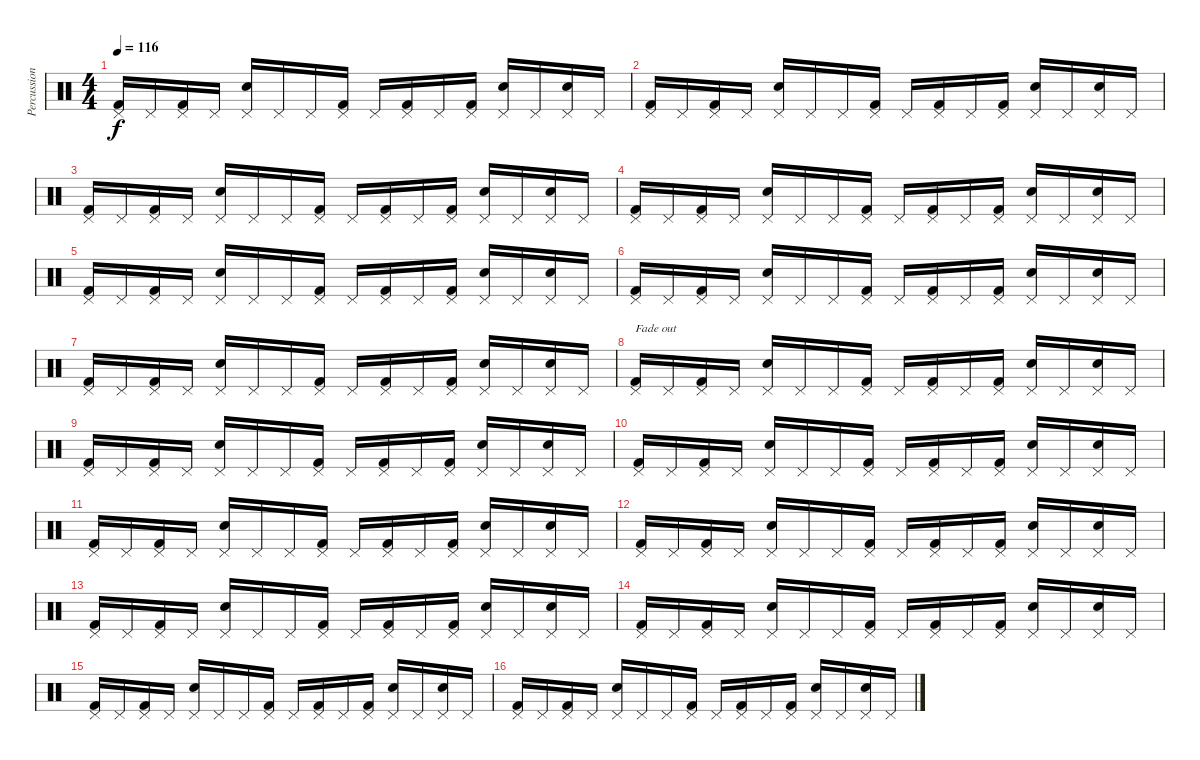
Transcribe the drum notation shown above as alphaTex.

\track ("Percussions" "Percussion") {instrument percussion}
\staff {score}
\articulation defaults
\ts (4 4)
\tempo 116
\clef neutral
\ks c
("Pedal Hi-Hat (hit)" "Kick (hit) 2").16{dy f} "Pedal Hi-Hat (hit)".16 ("Pedal Hi-Hat (hit)" "Kick (hit) 2").16 "Pedal Hi-Hat (hit)".16 ("Pedal Hi-Hat (hit)" "Snare (hit) 2").16 "Pedal Hi-Hat (hit)".16 "Pedal Hi-Hat (hit)".16 ("Pedal Hi-Hat (hit)" "Kick (hit) 2").16 "Pedal Hi-Hat (hit)".16 ("Pedal Hi-Hat (hit)" "Kick (hit) 2").16 "Pedal Hi-Hat (hit)".16 ("Pedal Hi-Hat (hit)" "Kick (hit) 2").16 ("Pedal Hi-Hat (hit)" "Snare (hit) 2").16 "Pedal Hi-Hat (hit)".16 ("Pedal Hi-Hat (hit)" "Snare (hit) 2").16 "Pedal Hi-Hat (hit)".16 |
("Pedal Hi-Hat (hit)" "Kick (hit) 2").16 "Pedal Hi-Hat (hit)".16 ("Pedal Hi-Hat (hit)" "Kick (hit) 2").16 "Pedal Hi-Hat (hit)".16 ("Pedal Hi-Hat (hit)" "Snare (hit) 2").16 "Pedal Hi-Hat (hit)".16 "Pedal Hi-Hat (hit)".16 ("Pedal Hi-Hat (hit)" "Kick (hit) 2").16 "Pedal Hi-Hat (hit)".16 ("Pedal Hi-Hat (hit)" "Kick (hit) 2").16 "Pedal Hi-Hat (hit)".16 ("Pedal Hi-Hat (hit)" "Kick (hit) 2").16 ("Pedal Hi-Hat (hit)" "Snare (hit) 2").16 "Pedal Hi-Hat (hit)".16 ("Pedal Hi-Hat (hit)" "Snare (hit) 2").16 "Pedal Hi-Hat (hit)".16 |
("Pedal Hi-Hat (hit)" "Kick (hit) 2").16 "Pedal Hi-Hat (hit)".16 ("Pedal Hi-Hat (hit)" "Kick (hit) 2").16 "Pedal Hi-Hat (hit)".16 ("Pedal Hi-Hat (hit)" "Snare (hit) 2").16 "Pedal Hi-Hat (hit)".16 "Pedal Hi-Hat (hit)".16 ("Pedal Hi-Hat (hit)" "Kick (hit) 2").16 "Pedal Hi-Hat (hit)".16 ("Pedal Hi-Hat (hit)" "Kick (hit) 2").16 "Pedal Hi-Hat (hit)".16 ("Pedal Hi-Hat (hit)" "Kick (hit) 2").16 ("Pedal Hi-Hat (hit)" "Snare (hit) 2").16 "Pedal Hi-Hat (hit)".16 ("Pedal Hi-Hat (hit)" "Snare (hit) 2").16 "Pedal Hi-Hat (hit)".16 |
("Pedal Hi-Hat (hit)" "Kick (hit) 2").16 "Pedal Hi-Hat (hit)".16 ("Pedal Hi-Hat (hit)" "Kick (hit) 2").16 "Pedal Hi-Hat (hit)".16 ("Pedal Hi-Hat (hit)" "Snare (hit) 2").16 "Pedal Hi-Hat (hit)".16 "Pedal Hi-Hat (hit)".16 ("Pedal Hi-Hat (hit)" "Kick (hit) 2").16 "Pedal Hi-Hat (hit)".16 ("Pedal Hi-Hat (hit)" "Kick (hit) 2").16 "Pedal Hi-Hat (hit)".16 ("Pedal Hi-Hat (hit)" "Kick (hit) 2").16 ("Pedal Hi-Hat (hit)" "Snare (hit) 2").16 "Pedal Hi-Hat (hit)".16 ("Pedal Hi-Hat (hit)" "Snare (hit) 2").16 "Pedal Hi-Hat (hit)".16 |
("Pedal Hi-Hat (hit)" "Kick (hit) 2").16 "Pedal Hi-Hat (hit)".16 ("Pedal Hi-Hat (hit)" "Kick (hit) 2").16 "Pedal Hi-Hat (hit)".16 ("Pedal Hi-Hat (hit)" "Snare (hit) 2").16 "Pedal Hi-Hat (hit)".16 "Pedal Hi-Hat (hit)".16 ("Pedal Hi-Hat (hit)" "Kick (hit) 2").16 "Pedal Hi-Hat (hit)".16 ("Pedal Hi-Hat (hit)" "Kick (hit) 2").16 "Pedal Hi-Hat (hit)".16 ("Pedal Hi-Hat (hit)" "Kick (hit) 2").16 ("Pedal Hi-Hat (hit)" "Snare (hit) 2").16 "Pedal Hi-Hat (hit)".16 ("Pedal Hi-Hat (hit)" "Snare (hit) 2").16 "Pedal Hi-Hat (hit)".16 |
("Pedal Hi-Hat (hit)" "Kick (hit) 2").16 "Pedal Hi-Hat (hit)".16 ("Pedal Hi-Hat (hit)" "Kick (hit) 2").16 "Pedal Hi-Hat (hit)".16 ("Pedal Hi-Hat (hit)" "Snare (hit) 2").16 "Pedal Hi-Hat (hit)".16 "Pedal Hi-Hat (hit)".16 ("Pedal Hi-Hat (hit)" "Kick (hit) 2").16 "Pedal Hi-Hat (hit)".16 ("Pedal Hi-Hat (hit)" "Kick (hit) 2").16 "Pedal Hi-Hat (hit)".16 ("Pedal Hi-Hat (hit)" "Kick (hit) 2").16 ("Pedal Hi-Hat (hit)" "Snare (hit) 2").16 "Pedal Hi-Hat (hit)".16 ("Pedal Hi-Hat (hit)" "Snare (hit) 2").16 "Pedal Hi-Hat (hit)".16 |
("Pedal Hi-Hat (hit)" "Kick (hit) 2").16 "Pedal Hi-Hat (hit)".16 ("Pedal Hi-Hat (hit)" "Kick (hit) 2").16 "Pedal Hi-Hat (hit)".16 ("Pedal Hi-Hat (hit)" "Snare (hit) 2").16 "Pedal Hi-Hat (hit)".16 "Pedal Hi-Hat (hit)".16 ("Pedal Hi-Hat (hit)" "Kick (hit) 2").16 "Pedal Hi-Hat (hit)".16 ("Pedal Hi-Hat (hit)" "Kick (hit) 2").16 "Pedal Hi-Hat (hit)".16 ("Pedal Hi-Hat (hit)" "Kick (hit) 2").16 ("Pedal Hi-Hat (hit)" "Snare (hit) 2").16 "Pedal Hi-Hat (hit)".16 ("Pedal Hi-Hat (hit)" "Snare (hit) 2").16 "Pedal Hi-Hat (hit)".16 |
("Pedal Hi-Hat (hit)" "Kick (hit) 2").16{txt "Fade out"} "Pedal Hi-Hat (hit)".16 ("Pedal Hi-Hat (hit)" "Kick (hit) 2").16 "Pedal Hi-Hat (hit)".16 ("Pedal Hi-Hat (hit)" "Snare (hit) 2").16 "Pedal Hi-Hat (hit)".16 "Pedal Hi-Hat (hit)".16 ("Pedal Hi-Hat (hit)" "Kick (hit) 2").16 "Pedal Hi-Hat (hit)".16 ("Pedal Hi-Hat (hit)" "Kick (hit) 2").16 "Pedal Hi-Hat (hit)".16 ("Pedal Hi-Hat (hit)" "Kick (hit) 2").16 ("Pedal Hi-Hat (hit)" "Snare (hit) 2").16 "Pedal Hi-Hat (hit)".16 ("Pedal Hi-Hat (hit)" "Snare (hit) 2").16 "Pedal Hi-Hat (hit)".16 |
("Pedal Hi-Hat (hit)" "Kick (hit) 2").16 "Pedal Hi-Hat (hit)".16 ("Pedal Hi-Hat (hit)" "Kick (hit) 2").16 "Pedal Hi-Hat (hit)".16 ("Pedal Hi-Hat (hit)" "Snare (hit) 2").16 "Pedal Hi-Hat (hit)".16 "Pedal Hi-Hat (hit)".16 ("Pedal Hi-Hat (hit)" "Kick (hit) 2").16 "Pedal Hi-Hat (hit)".16 ("Pedal Hi-Hat (hit)" "Kick (hit) 2").16 "Pedal Hi-Hat (hit)".16 ("Pedal Hi-Hat (hit)" "Kick (hit) 2").16 ("Pedal Hi-Hat (hit)" "Snare (hit) 2").16 "Pedal Hi-Hat (hit)".16 ("Pedal Hi-Hat (hit)" "Snare (hit) 2").16 "Pedal Hi-Hat (hit)".16 |
("Pedal Hi-Hat (hit)" "Kick (hit) 2").16 "Pedal Hi-Hat (hit)".16 ("Pedal Hi-Hat (hit)" "Kick (hit) 2").16 "Pedal Hi-Hat (hit)".16 ("Pedal Hi-Hat (hit)" "Snare (hit) 2").16 "Pedal Hi-Hat (hit)".16 "Pedal Hi-Hat (hit)".16 ("Pedal Hi-Hat (hit)" "Kick (hit) 2").16 "Pedal Hi-Hat (hit)".16 ("Pedal Hi-Hat (hit)" "Kick (hit) 2").16 "Pedal Hi-Hat (hit)".16 ("Pedal Hi-Hat (hit)" "Kick (hit) 2").16 ("Pedal Hi-Hat (hit)" "Snare (hit) 2").16 "Pedal Hi-Hat (hit)".16 ("Pedal Hi-Hat (hit)" "Snare (hit) 2").16 "Pedal Hi-Hat (hit)".16 |
("Pedal Hi-Hat (hit)" "Kick (hit) 2").16 "Pedal Hi-Hat (hit)".16 ("Pedal Hi-Hat (hit)" "Kick (hit) 2").16 "Pedal Hi-Hat (hit)".16 ("Pedal Hi-Hat (hit)" "Snare (hit) 2").16 "Pedal Hi-Hat (hit)".16 "Pedal Hi-Hat (hit)".16 ("Pedal Hi-Hat (hit)" "Kick (hit) 2").16 "Pedal Hi-Hat (hit)".16 ("Pedal Hi-Hat (hit)" "Kick (hit) 2").16 "Pedal Hi-Hat (hit)".16 ("Pedal Hi-Hat (hit)" "Kick (hit) 2").16 ("Pedal Hi-Hat (hit)" "Snare (hit) 2").16 "Pedal Hi-Hat (hit)".16 ("Pedal Hi-Hat (hit)" "Snare (hit) 2").16 "Pedal Hi-Hat (hit)".16 |
("Pedal Hi-Hat (hit)" "Kick (hit) 2").16 "Pedal Hi-Hat (hit)".16 ("Pedal Hi-Hat (hit)" "Kick (hit) 2").16 "Pedal Hi-Hat (hit)".16 ("Pedal Hi-Hat (hit)" "Snare (hit) 2").16 "Pedal Hi-Hat (hit)".16 "Pedal Hi-Hat (hit)".16 ("Pedal Hi-Hat (hit)" "Kick (hit) 2").16 "Pedal Hi-Hat (hit)".16 ("Pedal Hi-Hat (hit)" "Kick (hit) 2").16 "Pedal Hi-Hat (hit)".16 ("Pedal Hi-Hat (hit)" "Kick (hit) 2").16 ("Pedal Hi-Hat (hit)" "Snare (hit) 2").16 "Pedal Hi-Hat (hit)".16 ("Pedal Hi-Hat (hit)" "Snare (hit) 2").16 "Pedal Hi-Hat (hit)".16 |
("Pedal Hi-Hat (hit)" "Kick (hit) 2").16 "Pedal Hi-Hat (hit)".16 ("Pedal Hi-Hat (hit)" "Kick (hit) 2").16 "Pedal Hi-Hat (hit)".16 ("Pedal Hi-Hat (hit)" "Snare (hit) 2").16 "Pedal Hi-Hat (hit)".16 "Pedal Hi-Hat (hit)".16 ("Pedal Hi-Hat (hit)" "Kick (hit) 2").16 "Pedal Hi-Hat (hit)".16 ("Pedal Hi-Hat (hit)" "Kick (hit) 2").16 "Pedal Hi-Hat (hit)".16 ("Pedal Hi-Hat (hit)" "Kick (hit) 2").16 ("Pedal Hi-Hat (hit)" "Snare (hit) 2").16 "Pedal Hi-Hat (hit)".16 ("Pedal Hi-Hat (hit)" "Snare (hit) 2").16 "Pedal Hi-Hat (hit)".16 |
("Pedal Hi-Hat (hit)" "Kick (hit) 2").16 "Pedal Hi-Hat (hit)".16 ("Pedal Hi-Hat (hit)" "Kick (hit) 2").16 "Pedal Hi-Hat (hit)".16 ("Pedal Hi-Hat (hit)" "Snare (hit) 2").16 "Pedal Hi-Hat (hit)".16 "Pedal Hi-Hat (hit)".16 ("Pedal Hi-Hat (hit)" "Kick (hit) 2").16 "Pedal Hi-Hat (hit)".16 ("Pedal Hi-Hat (hit)" "Kick (hit) 2").16 "Pedal Hi-Hat (hit)".16 ("Pedal Hi-Hat (hit)" "Kick (hit) 2").16 ("Pedal Hi-Hat (hit)" "Snare (hit) 2").16 "Pedal Hi-Hat (hit)".16 ("Pedal Hi-Hat (hit)" "Snare (hit) 2").16 "Pedal Hi-Hat (hit)".16 |
("Pedal Hi-Hat (hit)" "Kick (hit) 2").16 "Pedal Hi-Hat (hit)".16 ("Pedal Hi-Hat (hit)" "Kick (hit) 2").16 "Pedal Hi-Hat (hit)".16 ("Pedal Hi-Hat (hit)" "Snare (hit) 2").16 "Pedal Hi-Hat (hit)".16 "Pedal Hi-Hat (hit)".16 ("Pedal Hi-Hat (hit)" "Kick (hit) 2").16 "Pedal Hi-Hat (hit)".16 ("Pedal Hi-Hat (hit)" "Kick (hit) 2").16 "Pedal Hi-Hat (hit)".16 ("Pedal Hi-Hat (hit)" "Kick (hit) 2").16 ("Pedal Hi-Hat (hit)" "Snare (hit) 2").16 "Pedal Hi-Hat (hit)".16 ("Pedal Hi-Hat (hit)" "Snare (hit) 2").16 "Pedal Hi-Hat (hit)".16 |
("Pedal Hi-Hat (hit)" "Kick (hit) 2").16 "Pedal Hi-Hat (hit)".16 ("Pedal Hi-Hat (hit)" "Kick (hit) 2").16 "Pedal Hi-Hat (hit)".16 ("Pedal Hi-Hat (hit)" "Snare (hit) 2").16 "Pedal Hi-Hat (hit)".16 "Pedal Hi-Hat (hit)".16 ("Pedal Hi-Hat (hit)" "Kick (hit) 2").16 "Pedal Hi-Hat (hit)".16 ("Pedal Hi-Hat (hit)" "Kick (hit) 2").16 "Pedal Hi-Hat (hit)".16 ("Pedal Hi-Hat (hit)" "Kick (hit) 2").16 ("Pedal Hi-Hat (hit)" "Snare (hit) 2").16 "Pedal Hi-Hat (hit)".16 ("Pedal Hi-Hat (hit)" "Snare (hit) 2").16 "Pedal Hi-Hat (hit)".16
